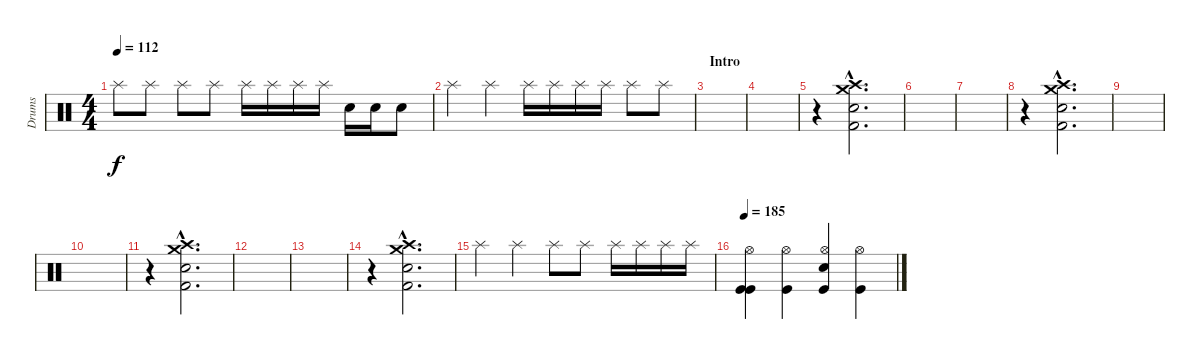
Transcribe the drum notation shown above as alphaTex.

\track ("Drums" "Drums") {instrument percussion}
\staff {score}
\articulation defaults
\ts (4 4)
\tempo 112
\clef neutral
\ks c "Splash (hit)".8{dy f} "Splash (hit)".8 "Splash (hit)".8 "Splash (hit)".8 "Splash (hit)".16 "Splash (hit)".16 "Splash (hit)".16 "Splash (hit)".16 "Snare (hit)".16 "Snare (hit)".16 "Snare (hit)".8
|
"Splash (hit)".4 "Splash (hit)".4 "Splash (hit)".16 "Splash (hit)".16 "Splash (hit)".16 "Splash (hit)".16 "Splash (hit)".8 "Splash (hit)".8 |
\section ("" "Intro")
|
|
r.4 ("Kick (hit) 2"{hac} "Snare (hit) 2"{hac} "Crash high (hit)"{hac} "Crash medium (hit)"{hac}).2{d} |
|
|
r.4 ("Kick (hit) 2"{hac} "Snare (hit) 2"{hac} "Crash high (hit)"{hac} "Crash medium (hit)"{hac}).2{d} |
|
|
r.4 ("Kick (hit) 2"{hac} "Snare (hit) 2"{hac} "Crash high (hit)"{hac} "Crash medium (hit)"{hac}).2{d} |
|
|
r.4 ("Kick (hit) 2"{hac} "Snare (hit) 2"{hac} "Crash high (hit)"{hac} "Crash medium (hit)"{hac}).2{d} |
"Splash (hit)".4 "Splash (hit)".4 "Splash (hit)".8 "Splash (hit)".8 "Splash (hit)".16 "Splash (hit)".16 "Splash (hit)".16 "Splash (hit)".16 |
\tempo 185
("Hi-Hat (open)" "Kick (hit)" "Kick (hit)").4 ("Hi-Hat (open)" "Kick (hit)").4 ("Hi-Hat (open)" "Kick (hit)" "Snare (hit) 2").4 ("Hi-Hat (open)" "Kick (hit)").4
